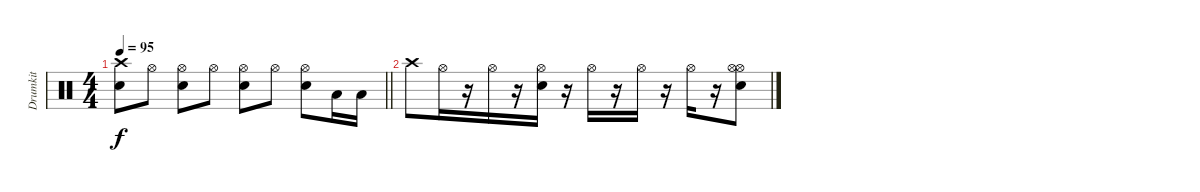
\track ("Drumkit" "Drumkit") {instrument percussion}
\staff {score}
\articulation defaults
\ts (4 4)
\tempo 95
\clef neutral
\barLineRight lightlight
\ks c
("Crash high (hit)" "Electric Snare (hit)").8{dy f beam merge} "Hi-Hat (open)".8 ("Hi-Hat (open)" "Electric Snare (hit)").8 "Hi-Hat (open)".8 ("Hi-Hat (open)" "Electric Snare (hit)").8{beam merge} "Hi-Hat (open)".8 ("Hi-Hat (open)" "Electric Snare (hit)").8{beam merge} "Low Floor Tom (hit)".16{beam merge} "Low Floor Tom (hit)".16 |
"Crash high (hit)".8 "Hi-Hat (open)".16{beam merge} r.16{beam merge} "Hi-Hat (open)".16 r.16{beam merge} ("Hi-Hat (open)" "Electric Snare (hit)").16 r.16 "Hi-Hat (open)".16 r.16 "Hi-Hat (open)".16 r.16 "Hi-Hat (open)".16{beam merge} r.16 ("Hi-Hat (open)" "Hi-Hat (open)" "Electric Snare (hit)").8
